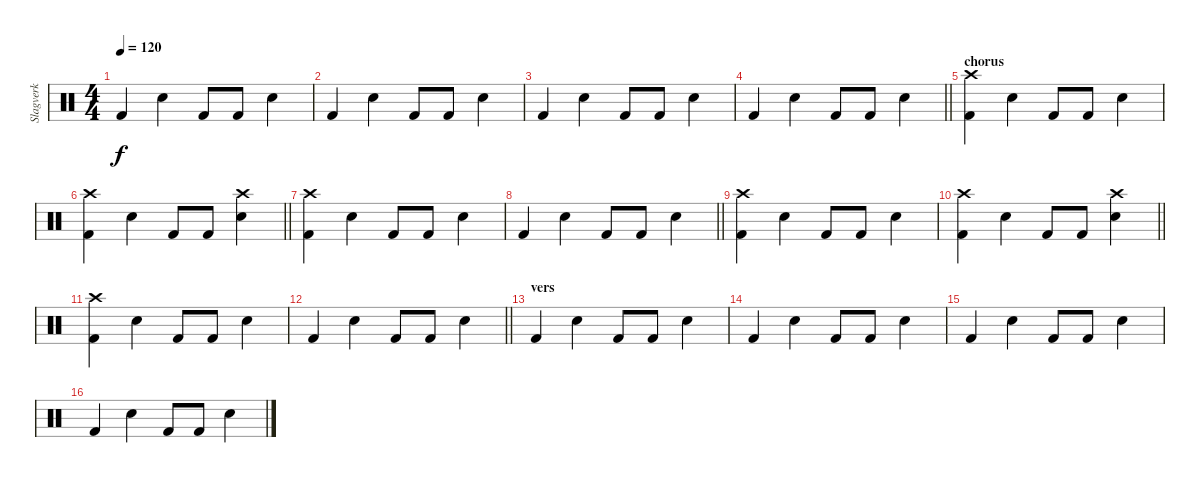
\track ("Slagverk" "Slagverk") {instrument percussion}
\staff {score}
\articulation defaults
\ts (4 4)
\tempo 120
\clef neutral
\ks c "Kick (hit) 2".4{dy f} "Snare (hit) 2".4 "Kick (hit) 2".8 "Kick (hit) 2".8 "Snare (hit) 2".4
|
"Kick (hit) 2".4 "Snare (hit) 2".4 "Kick (hit) 2".8 "Kick (hit) 2".8 "Snare (hit) 2".4 |
"Kick (hit) 2".4 "Snare (hit) 2".4 "Kick (hit) 2".8 "Kick (hit) 2".8 "Snare (hit) 2".4 |
\barLineRight lightlight "Kick (hit) 2".4 "Snare (hit) 2".4 "Kick (hit) 2".8 "Kick (hit) 2".8 "Snare (hit) 2".4
|
\section ("" "chorus")
("Kick (hit) 2" "Crash high (hit)").4 "Snare (hit) 2".4 "Kick (hit) 2".8 "Kick (hit) 2".8 "Snare (hit) 2".4 |
\barLineRight lightlight
("Kick (hit) 2" "Crash high (hit)").4 "Snare (hit) 2".4 "Kick (hit) 2".8 "Kick (hit) 2".8 ("Snare (hit) 2" "Crash high (hit)").4 |
("Kick (hit) 2" "Crash high (hit)").4 "Snare (hit) 2".4 "Kick (hit) 2".8 "Kick (hit) 2".8 "Snare (hit) 2".4 |
\barLineRight lightlight "Kick (hit) 2".4 "Snare (hit) 2".4 "Kick (hit) 2".8 "Kick (hit) 2".8 "Snare (hit) 2".4
|
("Kick (hit) 2" "Crash high (hit)").4 "Snare (hit) 2".4 "Kick (hit) 2".8 "Kick (hit) 2".8 "Snare (hit) 2".4 |
\barLineRight lightlight
("Kick (hit) 2" "Crash high (hit)").4 "Snare (hit) 2".4 "Kick (hit) 2".8 "Kick (hit) 2".8 ("Snare (hit) 2" "Crash high (hit)").4 |
("Kick (hit) 2" "Crash high (hit)").4 "Snare (hit) 2".4 "Kick (hit) 2".8 "Kick (hit) 2".8 "Snare (hit) 2".4 |
\barLineRight lightlight "Kick (hit) 2".4 "Snare (hit) 2".4 "Kick (hit) 2".8 "Kick (hit) 2".8 "Snare (hit) 2".4
|
\section ("" "vers")
"Kick (hit) 2".4 "Snare (hit) 2".4 "Kick (hit) 2".8 "Kick (hit) 2".8 "Snare (hit) 2".4 |
"Kick (hit) 2".4 "Snare (hit) 2".4 "Kick (hit) 2".8 "Kick (hit) 2".8 "Snare (hit) 2".4 |
"Kick (hit) 2".4 "Snare (hit) 2".4 "Kick (hit) 2".8 "Kick (hit) 2".8 "Snare (hit) 2".4 |
"Kick (hit) 2".4 "Snare (hit) 2".4 "Kick (hit) 2".8 "Kick (hit) 2".8 "Snare (hit) 2".4
